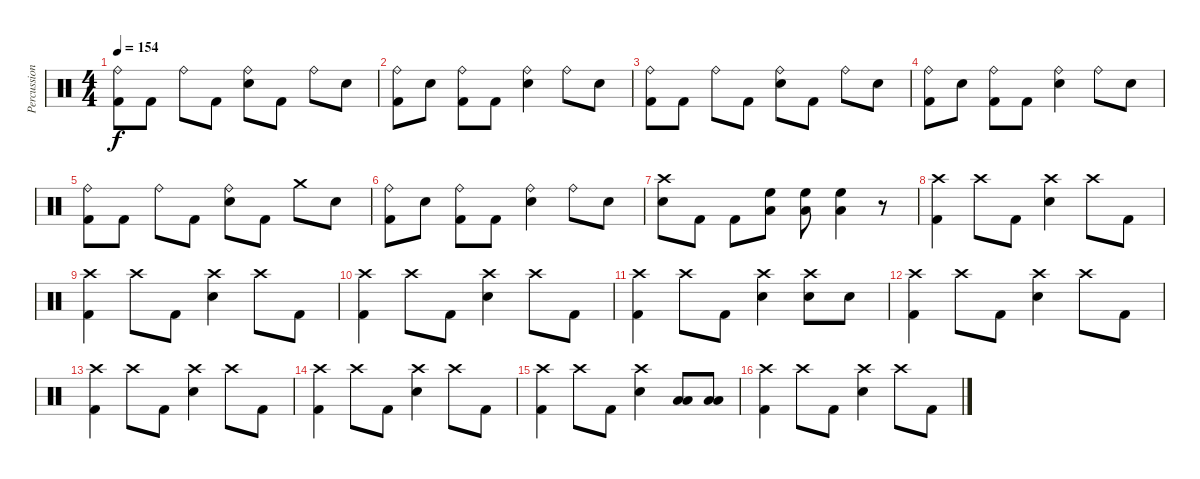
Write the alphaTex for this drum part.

\track ("Percussion" "Percussion") {instrument percussion}
\staff {score}
\articulation defaults
\ts (4 4)
\tempo 154
\clef neutral
\ks c
("Ride (bell)" "Kick (hit) 2").8{dy f} "Kick (hit) 2".8 "Ride (bell)".8 "Kick (hit) 2".8 ("Ride (bell)" "Snare (hit) 2").8 "Kick (hit) 2".8 "Ride (bell)".8 "Snare (hit) 2".8 |
("Ride (bell)" "Kick (hit) 2").8 "Snare (hit) 2".8 ("Ride (bell)" "Kick (hit) 2").8 "Kick (hit) 2".8 ("Ride (bell)" "Snare (hit) 2").4 "Ride (bell)".8 "Snare (hit) 2".8 |
("Ride (bell)" "Kick (hit) 2").8 "Kick (hit) 2".8 "Ride (bell)".8 "Kick (hit) 2".8 ("Ride (bell)" "Snare (hit) 2").8 "Kick (hit) 2".8 "Ride (bell)".8 "Snare (hit) 2".8 |
("Ride (bell)" "Kick (hit) 2").8 "Snare (hit) 2".8 ("Ride (bell)" "Kick (hit) 2").8 "Kick (hit) 2".8 ("Ride (bell)" "Snare (hit) 2").4 "Ride (bell)".8 "Snare (hit) 2".8 |
("Ride (bell)" "Kick (hit) 2").8 "Kick (hit) 2".8 "Ride (bell)".8 "Kick (hit) 2".8 ("Ride (bell)" "Snare (hit) 2").8 "Kick (hit) 2".8 "Crash medium (hit)".8 "Snare (hit) 2".8 |
("Ride (bell)" "Kick (hit) 2").8 "Snare (hit) 2".8 ("Ride (bell)" "Kick (hit) 2").8 "Kick (hit) 2".8 ("Ride (bell)" "Snare (hit) 2").4 "Ride (bell)".8 "Snare (hit) 2".8 |
("Crash high (hit)" "Snare (hit) 2").8 "Kick (hit) 2".8 "Kick (hit) 2".8 ("High Floor Tom (hit)" "Low Tom (hit)").8 ("High Floor Tom (hit)" "Low Tom (hit)").8 ("High Floor Tom (hit)" "Low Tom (hit)").4 r.8 |
("Crash high (hit)" "Kick (hit) 2").4 "Crash high (hit)".8 "Kick (hit) 2".8 ("Crash high (hit)" "Snare (hit) 2").4 "Crash high (hit)".8 "Kick (hit) 2".8 |
("Crash high (hit)" "Kick (hit) 2").4 "Crash high (hit)".8 "Kick (hit) 2".8 ("Crash high (hit)" "Snare (hit) 2").4 "Crash high (hit)".8 "Kick (hit) 2".8 |
("Crash high (hit)" "Kick (hit) 2").4 "Crash high (hit)".8 "Kick (hit) 2".8 ("Crash high (hit)" "Snare (hit) 2").4 "Crash high (hit)".8 "Kick (hit) 2".8 |
("Crash high (hit)" "Kick (hit) 2").4 "Crash high (hit)".8 "Kick (hit) 2".8 ("Crash high (hit)" "Snare (hit) 2").4 ("Crash high (hit)" "Snare (hit) 2").8 "Snare (hit) 2".8 |
("Crash high (hit)" "Kick (hit) 2").4 "Crash high (hit)".8 "Kick (hit) 2".8 ("Crash high (hit)" "Snare (hit) 2").4 "Crash high (hit)".8 "Kick (hit) 2".8 |
("Crash high (hit)" "Kick (hit) 2").4 "Crash high (hit)".8 "Kick (hit) 2".8 ("Crash high (hit)" "Snare (hit) 2").4 "Crash high (hit)".8 "Kick (hit) 2".8 |
("Crash high (hit)" "Kick (hit) 2").4 "Crash high (hit)".8 "Kick (hit) 2".8 ("Crash high (hit)" "Snare (hit) 2").4 "Crash high (hit)".8 "Kick (hit) 2".8 |
("Crash high (hit)" "Kick (hit) 2").4 "Crash high (hit)".8 "Kick (hit) 2".8 ("Crash high (hit)" "Snare (hit) 2").4 ("Low Tom (hit)" "Low Floor Tom (hit)").8 ("Low Tom (hit)" "Low Floor Tom (hit)").8 |
("Crash high (hit)" "Kick (hit) 2").4 "Crash high (hit)".8 "Kick (hit) 2".8 ("Crash high (hit)" "Snare (hit) 2").4 "Crash high (hit)".8 "Kick (hit) 2".8
